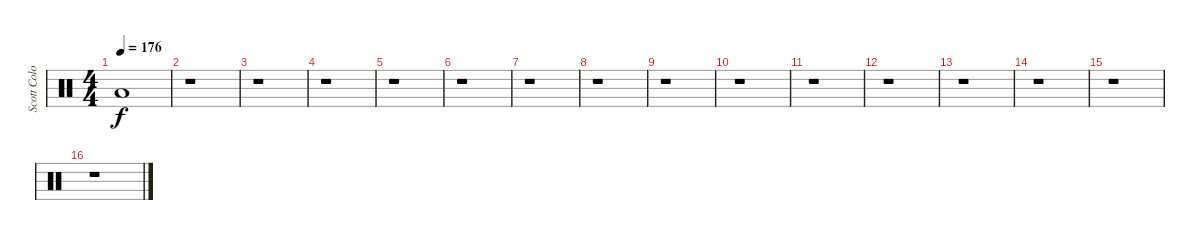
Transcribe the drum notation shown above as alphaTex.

\track ("Scott Colombus" "Scott Colo") {instrument percussion}
\staff {score}
\articulation defaults
\ts (4 4)
\tempo 176
\clef neutral
\ks c "Low Floor Tom (hit)".1{dy f}
|
r.1 |
r.1 |
r.1 |
r.1 |
r.1 |
r.1 |
r.1 |
r.1 |
r.1 |
r.1 |
r.1 |
r.1 |
r.1 |
r.1 |
r.1
